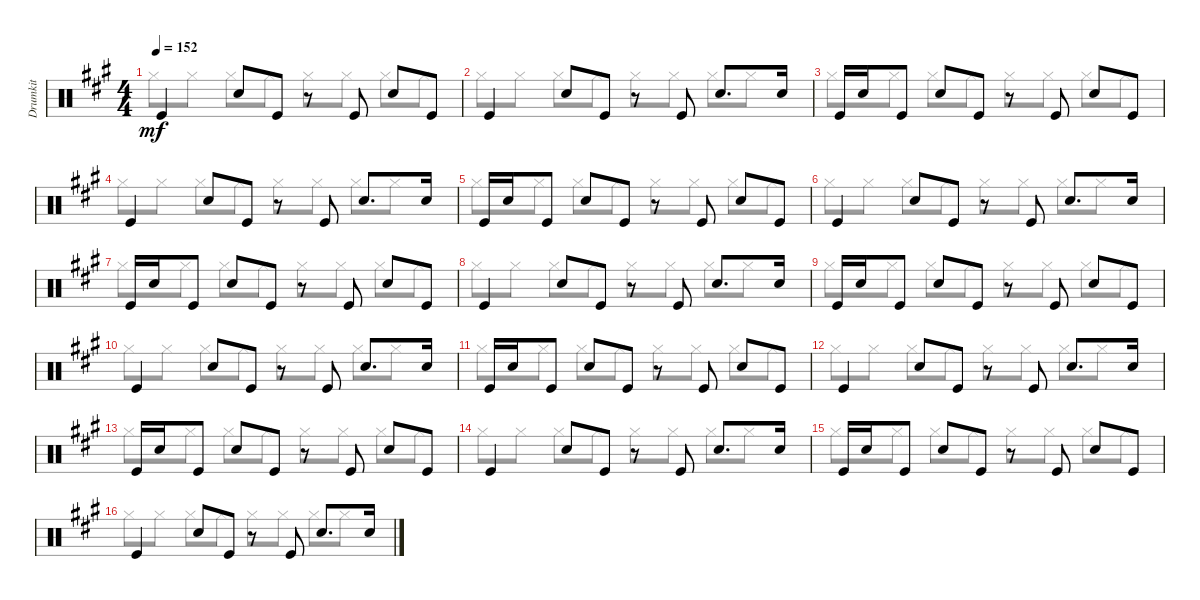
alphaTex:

\track ("Drumkit" "Drumkit") {instrument percussion}
\staff {score}
\articulation defaults
\voice
\ts (4 4)
\tempo 152
\clef neutral
\ks a "Kick (hit)".4{dy mf} "Snare (hit) 2".8 "Kick (hit)".8
r.8 "Kick (hit)".8 "Snare (hit) 2".8 "Kick (hit)".8 |
"Kick (hit)".4 "Snare (hit) 2".8 "Kick (hit)".8 r.8 "Kick (hit)".8 "Snare (hit) 2".8{d} "Snare (hit) 2".16 |
"Kick (hit)".16 "Snare (hit) 2".16 "Kick (hit)".8 "Snare (hit) 2".8 "Kick (hit)".8 r.8 "Kick (hit)".8 "Snare (hit) 2".8 "Kick (hit)".8 |
"Kick (hit)".4 "Snare (hit) 2".8 "Kick (hit)".8 r.8 "Kick (hit)".8 "Snare (hit) 2".8{d} "Snare (hit) 2".16 |
"Kick (hit)".16 "Snare (hit) 2".16 "Kick (hit)".8 "Snare (hit) 2".8 "Kick (hit)".8 r.8 "Kick (hit)".8 "Snare (hit) 2".8 "Kick (hit)".8 |
"Kick (hit)".4 "Snare (hit) 2".8 "Kick (hit)".8 r.8 "Kick (hit)".8 "Snare (hit) 2".8{d} "Snare (hit) 2".16 |
"Kick (hit)".16 "Snare (hit) 2".16 "Kick (hit)".8 "Snare (hit) 2".8 "Kick (hit)".8 r.8 "Kick (hit)".8 "Snare (hit) 2".8 "Kick (hit)".8 |
"Kick (hit)".4 "Snare (hit) 2".8 "Kick (hit)".8 r.8 "Kick (hit)".8 "Snare (hit) 2".8{d} "Snare (hit) 2".16 |
"Kick (hit)".16 "Snare (hit) 2".16 "Kick (hit)".8 "Snare (hit) 2".8 "Kick (hit)".8 r.8 "Kick (hit)".8 "Snare (hit) 2".8 "Kick (hit)".8 |
"Kick (hit)".4 "Snare (hit) 2".8 "Kick (hit)".8 r.8 "Kick (hit)".8 "Snare (hit) 2".8{d} "Snare (hit) 2".16 |
"Kick (hit)".16 "Snare (hit) 2".16 "Kick (hit)".8 "Snare (hit) 2".8 "Kick (hit)".8 r.8 "Kick (hit)".8 "Snare (hit) 2".8 "Kick (hit)".8 |
"Kick (hit)".4 "Snare (hit) 2".8 "Kick (hit)".8 r.8 "Kick (hit)".8 "Snare (hit) 2".8{d} "Snare (hit) 2".16 |
"Kick (hit)".16 "Snare (hit) 2".16 "Kick (hit)".8 "Snare (hit) 2".8 "Kick (hit)".8 r.8 "Kick (hit)".8 "Snare (hit) 2".8 "Kick (hit)".8 |
"Kick (hit)".4 "Snare (hit) 2".8 "Kick (hit)".8 r.8 "Kick (hit)".8 "Snare (hit) 2".8{d} "Snare (hit) 2".16 |
"Kick (hit)".16 "Snare (hit) 2".16 "Kick (hit)".8 "Snare (hit) 2".8 "Kick (hit)".8 r.8 "Kick (hit)".8 "Snare (hit) 2".8 "Kick (hit)".8 |
"Kick (hit)".4 "Snare (hit) 2".8 "Kick (hit)".8 r.8 "Kick (hit)".8 "Snare (hit) 2".8{d} "Snare (hit) 2".16
\voice
\clef neutral
\ottava regular
\simile none
\ks a "Hi-Hat (closed)".8{dy mf} "Hi-Hat (closed)".8 "Hi-Hat (closed)".8 "Hi-Hat (closed)".8 "Hi-Hat (closed)".8 "Hi-Hat (closed)".8 "Hi-Hat (closed)".8 "Hi-Hat (closed)".8
|
"Hi-Hat (closed)".8 "Hi-Hat (closed)".8 "Hi-Hat (closed)".8 "Hi-Hat (closed)".8 "Hi-Hat (closed)".8 "Hi-Hat (closed)".8 "Hi-Hat (closed)".8 "Hi-Hat (closed)".8 |
"Hi-Hat (closed)".8 "Hi-Hat (closed)".8 "Hi-Hat (closed)".8 "Hi-Hat (closed)".8 "Hi-Hat (closed)".8 "Hi-Hat (closed)".8 "Hi-Hat (closed)".8 "Hi-Hat (closed)".8 |
"Hi-Hat (closed)".8 "Hi-Hat (closed)".8 "Hi-Hat (closed)".8 "Hi-Hat (closed)".8 "Hi-Hat (closed)".8 "Hi-Hat (closed)".8 "Hi-Hat (closed)".8 "Hi-Hat (closed)".8 |
"Hi-Hat (closed)".8 "Hi-Hat (closed)".8 "Hi-Hat (closed)".8 "Hi-Hat (closed)".8 "Hi-Hat (closed)".8 "Hi-Hat (closed)".8 "Hi-Hat (closed)".8 "Hi-Hat (closed)".8 |
"Hi-Hat (closed)".8 "Hi-Hat (closed)".8 "Hi-Hat (closed)".8 "Hi-Hat (closed)".8 "Hi-Hat (closed)".8 "Hi-Hat (closed)".8 "Hi-Hat (closed)".8 "Hi-Hat (closed)".8 |
"Hi-Hat (closed)".8 "Hi-Hat (closed)".8 "Hi-Hat (closed)".8 "Hi-Hat (closed)".8 "Hi-Hat (closed)".8 "Hi-Hat (closed)".8 "Hi-Hat (closed)".8 "Hi-Hat (closed)".8 |
"Hi-Hat (closed)".8 "Hi-Hat (closed)".8 "Hi-Hat (closed)".8 "Hi-Hat (closed)".8 "Hi-Hat (closed)".8 "Hi-Hat (closed)".8 "Hi-Hat (closed)".8 "Hi-Hat (closed)".8 |
"Hi-Hat (closed)".8 "Hi-Hat (closed)".8 "Hi-Hat (closed)".8 "Hi-Hat (closed)".8 "Hi-Hat (closed)".8 "Hi-Hat (closed)".8 "Hi-Hat (closed)".8 "Hi-Hat (closed)".8 |
"Hi-Hat (closed)".8 "Hi-Hat (closed)".8 "Hi-Hat (closed)".8 "Hi-Hat (closed)".8 "Hi-Hat (closed)".8 "Hi-Hat (closed)".8 "Hi-Hat (closed)".8 "Hi-Hat (closed)".8 |
"Hi-Hat (closed)".8 "Hi-Hat (closed)".8 "Hi-Hat (closed)".8 "Hi-Hat (closed)".8 "Hi-Hat (closed)".8 "Hi-Hat (closed)".8 "Hi-Hat (closed)".8 "Hi-Hat (closed)".8 |
"Hi-Hat (closed)".8 "Hi-Hat (closed)".8 "Hi-Hat (closed)".8 "Hi-Hat (closed)".8 "Hi-Hat (closed)".8 "Hi-Hat (closed)".8 "Hi-Hat (closed)".8 "Hi-Hat (closed)".8 |
"Hi-Hat (closed)".8 "Hi-Hat (closed)".8 "Hi-Hat (closed)".8 "Hi-Hat (closed)".8 "Hi-Hat (closed)".8 "Hi-Hat (closed)".8 "Hi-Hat (closed)".8 "Hi-Hat (closed)".8 |
"Hi-Hat (closed)".8 "Hi-Hat (closed)".8 "Hi-Hat (closed)".8 "Hi-Hat (closed)".8 "Hi-Hat (closed)".8 "Hi-Hat (closed)".8 "Hi-Hat (closed)".8 "Hi-Hat (closed)".8 |
"Hi-Hat (closed)".8 "Hi-Hat (closed)".8 "Hi-Hat (closed)".8 "Hi-Hat (closed)".8 "Hi-Hat (closed)".8 "Hi-Hat (closed)".8 "Hi-Hat (closed)".8 "Hi-Hat (closed)".8 |
"Hi-Hat (closed)".8 "Hi-Hat (closed)".8 "Hi-Hat (closed)".8 "Hi-Hat (closed)".8 "Hi-Hat (closed)".8 "Hi-Hat (closed)".8 "Hi-Hat (closed)".8 "Hi-Hat (closed)".8
